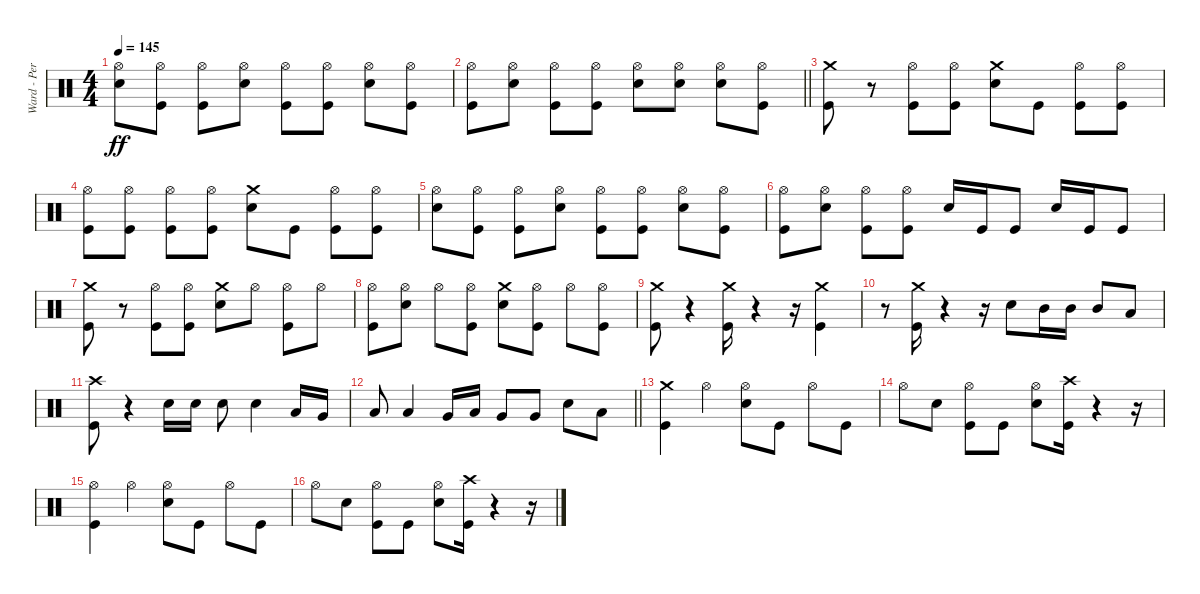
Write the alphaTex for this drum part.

\track ("Ward - Percussion" "Ward - Per") {instrument percussion}
\staff {score}
\articulation defaults
\ts (4 4)
\tempo 145
\clef neutral
\ks c
("Hi-Hat (open)" "Snare (hit) 2").8{dy ff} ("Hi-Hat (open)" "Kick (hit)").8 ("Hi-Hat (open)" "Kick (hit)").8 ("Snare (hit) 2" "Hi-Hat (open)").8 ("Hi-Hat (open)" "Kick (hit)").8 ("Hi-Hat (open)" "Kick (hit)").8 ("Snare (hit) 2" "Hi-Hat (open)").8 ("Hi-Hat (open)" "Kick (hit)").8 |
\barLineRight lightlight
("Hi-Hat (open)" "Kick (hit)").8 ("Snare (hit) 2" "Hi-Hat (open)").8 ("Hi-Hat (open)" "Kick (hit)").8 ("Hi-Hat (open)" "Kick (hit)").8 ("Hi-Hat (open)" "Snare (hit) 2").8 ("Hi-Hat (open)" "Snare (hit) 2").8 ("Hi-Hat (open)" "Snare (hit) 2").8 ("Hi-Hat (open)" "Kick (hit)").8 |
("Kick (hit)" "Crash medium (hit)").8 r.8 ("Hi-Hat (open)" "Kick (hit)").8 ("Hi-Hat (open)" "Kick (hit)").8 ("Snare (hit) 2" "Crash medium (hit)").8 "Kick (hit)".8 ("Hi-Hat (open)" "Kick (hit)").8 ("Hi-Hat (open)" "Kick (hit)").8 |
("Hi-Hat (open)" "Kick (hit)").8 ("Hi-Hat (open)" "Kick (hit)").8 ("Kick (hit)" "Hi-Hat (open)").8 ("Hi-Hat (open)" "Kick (hit)").8 ("Snare (hit) 2" "Crash medium (hit)").8 "Kick (hit)".8 ("Hi-Hat (open)" "Kick (hit)").8 ("Hi-Hat (open)" "Kick (hit)").8 |
("Hi-Hat (open)" "Snare (hit) 2").8 ("Hi-Hat (open)" "Kick (hit)").8 ("Hi-Hat (open)" "Kick (hit)").8 ("Snare (hit) 2" "Hi-Hat (open)").8 ("Hi-Hat (open)" "Kick (hit)").8 ("Hi-Hat (open)" "Kick (hit)").8 ("Snare (hit) 2" "Hi-Hat (open)").8 ("Hi-Hat (open)" "Kick (hit)").8 |
("Hi-Hat (open)" "Kick (hit)").8 ("Snare (hit) 2" "Hi-Hat (open)").8 ("Hi-Hat (open)" "Kick (hit)").8 ("Hi-Hat (open)" "Kick (hit)").8 "Snare (hit) 2".16 "Kick (hit)".16 "Kick (hit)".8 "Snare (hit) 2".16 "Kick (hit)".16 "Kick (hit)".8 |
("Crash medium (hit)" "Kick (hit)").8 r.8 ("Hi-Hat (open)" "Kick (hit)").8 ("Hi-Hat (open)" "Kick (hit)").8 ("Snare (hit) 2" "Crash medium (hit)").8 "Hi-Hat (open)".8 ("Hi-Hat (open)" "Kick (hit)").8 "Hi-Hat (open)".8 |
("Kick (hit)" "Hi-Hat (open)").8 ("Hi-Hat (open)" "Snare (hit) 2").8 "Hi-Hat (open)".8 ("Hi-Hat (open)" "Kick (hit)").8 ("Snare (hit) 2" "Crash medium (hit)").8 ("Kick (hit)" "Hi-Hat (open)").8 "Hi-Hat (open)".8 ("Hi-Hat (open)" "Kick (hit)").8 |
("Crash medium (hit)" "Kick (hit)").8 r.4 ("Kick (hit)" "Crash medium (hit)").16 r.4 r.16 ("Kick (hit)" "Crash medium (hit)").4 |
r.8 ("Kick (hit)" "Crash medium (hit)").16 r.4 r.16 "Snare (hit) 2".8 "Mid Tom (hit)".16 "Mid Tom (hit)".16 "Mid Tom (hit)".8 "Low Floor Tom (hit)".8 |
("Kick (hit)" "Crash high (hit)").8 r.4 "Snare (hit) 2".16 "Snare (hit) 2".16 "Snare (hit) 2".8 "Snare (hit) 2".4 "Low Tom (hit)".16 "Very Low Tom (hit)".16 |
\barLineRight lightlight "Low Tom (hit)".8 "Low Tom (hit)".4 "Very Low Tom (hit)".16 "Low Floor Tom (hit)".16 "Very Low Tom (hit)".8 "Very Low Tom (hit)".8 "Snare (hit) 2".8 "Low Floor Tom (hit)".8
|
("Kick (hit)" "Crash medium (hit)").4 "Hi-Hat (open)".4 ("Hi-Hat (open)" "Snare (hit) 2").8 "Kick (hit)".8 "Hi-Hat (open)".8 "Kick (hit)".8 |
"Hi-Hat (open)".8 "Snare (hit) 2".8 ("Hi-Hat (open)" "Kick (hit)").8 "Kick (hit)".8 ("Hi-Hat (open)" "Snare (hit) 2").8 ("Kick (hit)" "Crash high (hit)").16 r.4 r.16 |
("Hi-Hat (open)" "Kick (hit)").4 "Hi-Hat (open)".4 ("Hi-Hat (open)" "Snare (hit) 2").8 "Kick (hit)".8 "Hi-Hat (open)".8 "Kick (hit)".8 |
"Hi-Hat (open)".8 "Snare (hit) 2".8 ("Hi-Hat (open)" "Kick (hit)").8 "Kick (hit)".8 ("Hi-Hat (open)" "Snare (hit) 2").8 ("Kick (hit)" "Crash high (hit)").16 r.4 r.16
